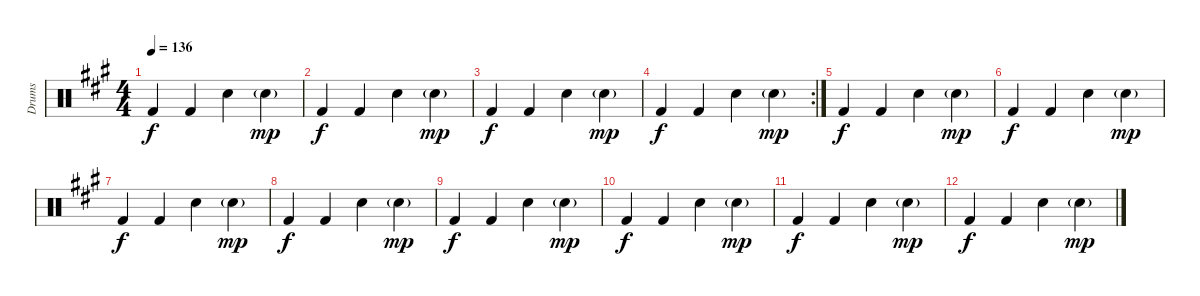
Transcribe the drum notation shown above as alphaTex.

\track ("Drums" "Drums") {instrument percussion}
\staff {score}
\articulation defaults
\ts (4 4)
\tempo 136
\clef neutral
\ks a "Kick (hit) 2".4{dy f} "Kick (hit) 2".4 "Snare (hit) 2".4 "Snare (hit) 2"{g}.4{dy mp}
|
"Kick (hit) 2".4{dy f} "Kick (hit) 2".4 "Snare (hit) 2".4 "Snare (hit) 2"{g}.4{dy mp} |
"Kick (hit) 2".4{dy f} "Kick (hit) 2".4 "Snare (hit) 2".4 "Snare (hit) 2"{g}.4{dy mp} |
\rc 2 "Kick (hit) 2".4{dy f} "Kick (hit) 2".4 "Snare (hit) 2".4 "Snare (hit) 2"{g}.4{dy mp}
|
"Kick (hit) 2".4{dy f} "Kick (hit) 2".4 "Snare (hit) 2".4 "Snare (hit) 2"{g}.4{dy mp} |
"Kick (hit) 2".4{dy f} "Kick (hit) 2".4 "Snare (hit) 2".4 "Snare (hit) 2"{g}.4{dy mp} |
"Kick (hit) 2".4{dy f} "Kick (hit) 2".4 "Snare (hit) 2".4 "Snare (hit) 2"{g}.4{dy mp} |
"Kick (hit) 2".4{dy f} "Kick (hit) 2".4 "Snare (hit) 2".4 "Snare (hit) 2"{g}.4{dy mp} |
"Kick (hit) 2".4{dy f} "Kick (hit) 2".4 "Snare (hit) 2".4 "Snare (hit) 2"{g}.4{dy mp} |
"Kick (hit) 2".4{dy f} "Kick (hit) 2".4 "Snare (hit) 2".4 "Snare (hit) 2"{g}.4{dy mp} |
"Kick (hit) 2".4{dy f} "Kick (hit) 2".4 "Snare (hit) 2".4 "Snare (hit) 2"{g}.4{dy mp} |
"Kick (hit) 2".4{dy f} "Kick (hit) 2".4 "Snare (hit) 2".4 "Snare (hit) 2"{g}.4{dy mp}
